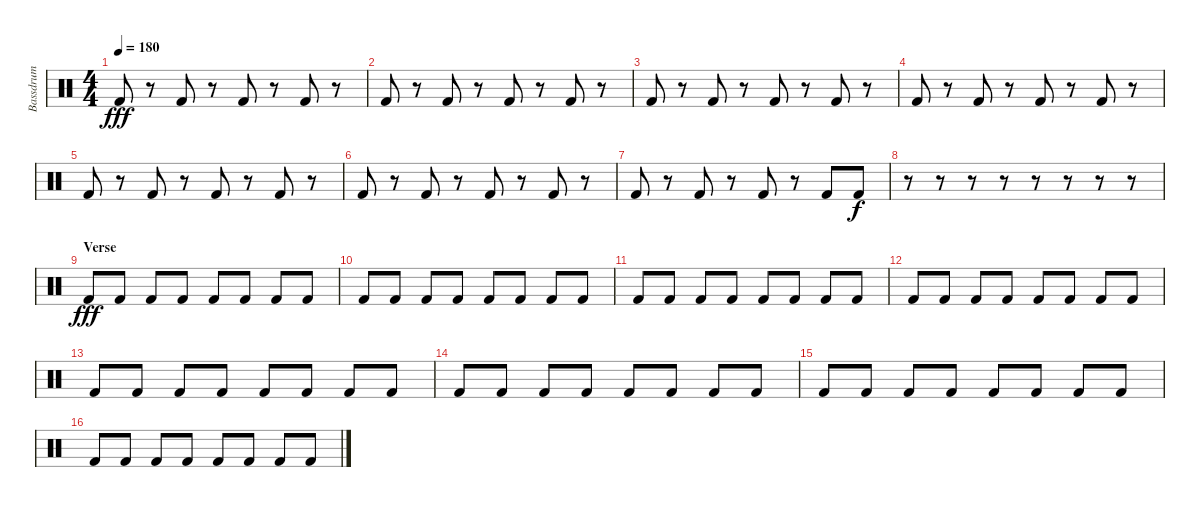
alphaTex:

\track ("Bassdrum" "Bassdrum") {instrument percussion}
\staff {score}
\articulation defaults
\ts (4 4)
\tempo 180
\clef neutral
\ks c "Kick (hit) 2".8{dy fff}
r.8 "Kick (hit) 2".8 r.8 "Kick (hit) 2".8 r.8 "Kick (hit) 2".8 r.8 |
"Kick (hit) 2".8 r.8 "Kick (hit) 2".8 r.8 "Kick (hit) 2".8 r.8 "Kick (hit) 2".8 r.8 |
"Kick (hit) 2".8 r.8 "Kick (hit) 2".8 r.8 "Kick (hit) 2".8 r.8 "Kick (hit) 2".8 r.8 |
"Kick (hit) 2".8 r.8 "Kick (hit) 2".8 r.8 "Kick (hit) 2".8 r.8 "Kick (hit) 2".8 r.8 |
"Kick (hit) 2".8 r.8 "Kick (hit) 2".8 r.8 "Kick (hit) 2".8 r.8 "Kick (hit) 2".8 r.8 |
"Kick (hit) 2".8 r.8 "Kick (hit) 2".8 r.8 "Kick (hit) 2".8 r.8 "Kick (hit) 2".8 r.8 |
"Kick (hit) 2".8 r.8 "Kick (hit) 2".8 r.8 "Kick (hit) 2".8 r.8 "Kick (hit) 2".8 "Kick (hit) 2".8{dy f} |
r.8 r.8 r.8 r.8 r.8 r.8 r.8 r.8 |
\section ("" "Verse")
"Kick (hit) 2".8{dy fff} "Kick (hit) 2".8 "Kick (hit) 2".8 "Kick (hit) 2".8 "Kick (hit) 2".8 "Kick (hit) 2".8 "Kick (hit) 2".8 "Kick (hit) 2".8 |
"Kick (hit) 2".8 "Kick (hit) 2".8 "Kick (hit) 2".8 "Kick (hit) 2".8 "Kick (hit) 2".8 "Kick (hit) 2".8 "Kick (hit) 2".8 "Kick (hit) 2".8 |
"Kick (hit) 2".8 "Kick (hit) 2".8 "Kick (hit) 2".8 "Kick (hit) 2".8 "Kick (hit) 2".8 "Kick (hit) 2".8 "Kick (hit) 2".8 "Kick (hit) 2".8 |
"Kick (hit) 2".8 "Kick (hit) 2".8 "Kick (hit) 2".8 "Kick (hit) 2".8 "Kick (hit) 2".8 "Kick (hit) 2".8 "Kick (hit) 2".8 "Kick (hit) 2".8 |
"Kick (hit) 2".8 "Kick (hit) 2".8 "Kick (hit) 2".8 "Kick (hit) 2".8 "Kick (hit) 2".8 "Kick (hit) 2".8 "Kick (hit) 2".8 "Kick (hit) 2".8 |
"Kick (hit) 2".8 "Kick (hit) 2".8 "Kick (hit) 2".8 "Kick (hit) 2".8 "Kick (hit) 2".8 "Kick (hit) 2".8 "Kick (hit) 2".8 "Kick (hit) 2".8 |
"Kick (hit) 2".8 "Kick (hit) 2".8 "Kick (hit) 2".8 "Kick (hit) 2".8 "Kick (hit) 2".8 "Kick (hit) 2".8 "Kick (hit) 2".8 "Kick (hit) 2".8 |
"Kick (hit) 2".8 "Kick (hit) 2".8 "Kick (hit) 2".8 "Kick (hit) 2".8 "Kick (hit) 2".8 "Kick (hit) 2".8 "Kick (hit) 2".8 "Kick (hit) 2".8
